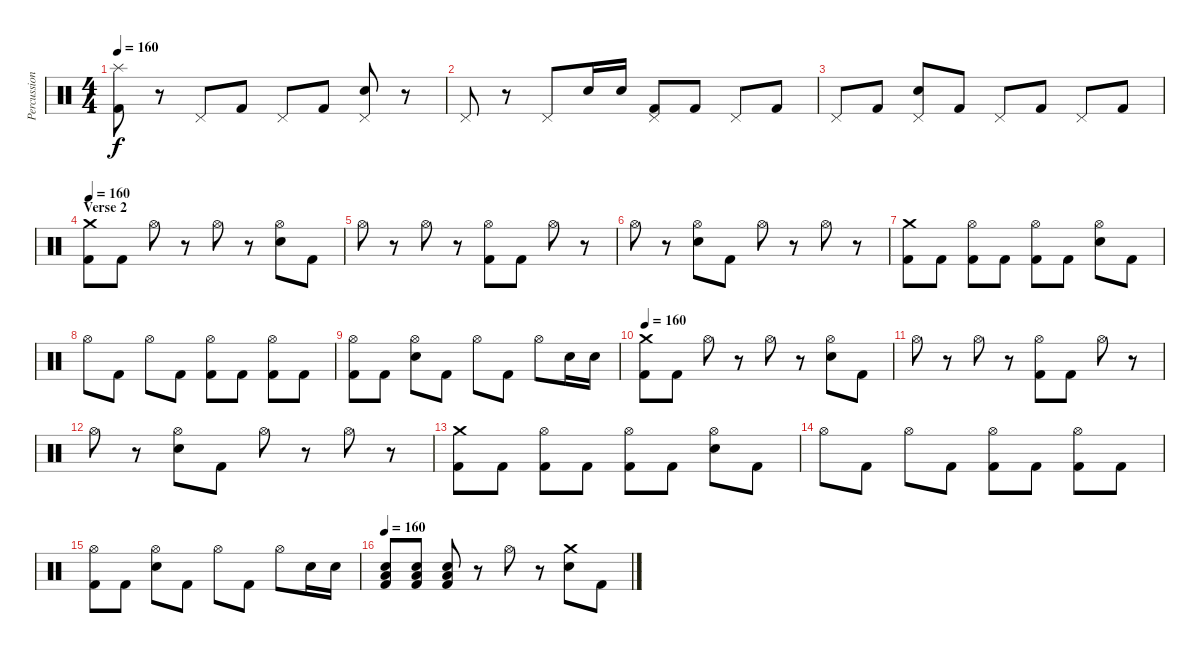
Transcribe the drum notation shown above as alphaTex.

\track ("Percussion" "Percussion") {instrument percussion}
\staff {score}
\articulation defaults
\ts (4 4)
\tempo 160
\clef neutral
\ks c
("Splash (hit)" "Kick (hit) 2").8{dy f} r.8 "Pedal Hi-Hat (hit)".8 "Kick (hit) 2".8 "Pedal Hi-Hat (hit)".8 "Kick (hit) 2".8 ("Pedal Hi-Hat (hit)" "Electric Snare (hit)").8 r.8 |
"Pedal Hi-Hat (hit)".8 r.8 "Pedal Hi-Hat (hit)".8 "Electric Snare (hit)".16 "Electric Snare (hit)".16 ("Pedal Hi-Hat (hit)" "Kick (hit) 2").8 "Kick (hit) 2".8 "Pedal Hi-Hat (hit)".8 "Kick (hit) 2".8 |
"Pedal Hi-Hat (hit)".8 "Kick (hit) 2".8 ("Pedal Hi-Hat (hit)" "Electric Snare (hit)").8 "Kick (hit) 2".8 "Pedal Hi-Hat (hit)".8 "Kick (hit) 2".8 "Pedal Hi-Hat (hit)".8 "Kick (hit) 2".8 |
\section ("" "Verse 2")
\tempo 160
("Crash medium (hit)" "Kick (hit) 2").8 "Kick (hit) 2".8 "Hi-Hat (open)".8 r.8 "Hi-Hat (open)".8 r.8 ("Hi-Hat (open)" "Electric Snare (hit)").8 "Kick (hit) 2".8 |
"Hi-Hat (open)".8 r.8 "Hi-Hat (open)".8 r.8 ("Hi-Hat (open)" "Kick (hit) 2").8 "Kick (hit) 2".8 "Hi-Hat (open)".8 r.8 |
"Hi-Hat (open)".8 r.8 ("Hi-Hat (open)" "Electric Snare (hit)").8 "Kick (hit) 2".8 "Hi-Hat (open)".8 r.8 "Hi-Hat (open)".8 r.8 |
("Crash medium (hit)" "Kick (hit) 2").8 "Kick (hit) 2".8 ("Hi-Hat (open)" "Kick (hit) 2").8 "Kick (hit) 2".8 ("Hi-Hat (open)" "Kick (hit) 2").8 "Kick (hit) 2".8 ("Hi-Hat (open)" "Electric Snare (hit)").8 "Kick (hit) 2".8 |
"Hi-Hat (open)".8 "Kick (hit) 2".8 "Hi-Hat (open)".8 "Kick (hit) 2".8 ("Hi-Hat (open)" "Kick (hit) 2").8 "Kick (hit) 2".8 ("Hi-Hat (open)" "Kick (hit) 2").8 "Kick (hit) 2".8 |
("Hi-Hat (open)" "Kick (hit) 2").8 "Kick (hit) 2".8 ("Hi-Hat (open)" "Electric Snare (hit)").8 "Kick (hit) 2".8 "Hi-Hat (open)".8 "Kick (hit) 2".8 "Hi-Hat (open)".8 "Electric Snare (hit)".16 "Electric Snare (hit)".16 |
\tempo 160
("Crash medium (hit)" "Kick (hit) 2").8 "Kick (hit) 2".8 "Hi-Hat (open)".8 r.8 "Hi-Hat (open)".8 r.8 ("Hi-Hat (open)" "Electric Snare (hit)").8 "Kick (hit) 2".8 |
"Hi-Hat (open)".8 r.8 "Hi-Hat (open)".8 r.8 ("Hi-Hat (open)" "Kick (hit) 2").8 "Kick (hit) 2".8 "Hi-Hat (open)".8 r.8 |
"Hi-Hat (open)".8 r.8 ("Hi-Hat (open)" "Electric Snare (hit)").8 "Kick (hit) 2".8 "Hi-Hat (open)".8 r.8 "Hi-Hat (open)".8 r.8 |
("Crash medium (hit)" "Kick (hit) 2").8 "Kick (hit) 2".8 ("Hi-Hat (open)" "Kick (hit) 2").8 "Kick (hit) 2".8 ("Hi-Hat (open)" "Kick (hit) 2").8 "Kick (hit) 2".8 ("Hi-Hat (open)" "Electric Snare (hit)").8 "Kick (hit) 2".8 |
"Hi-Hat (open)".8 "Kick (hit) 2".8 "Hi-Hat (open)".8 "Kick (hit) 2".8 ("Hi-Hat (open)" "Kick (hit) 2").8 "Kick (hit) 2".8 ("Hi-Hat (open)" "Kick (hit) 2").8 "Kick (hit) 2".8 |
("Hi-Hat (open)" "Kick (hit) 2").8 "Kick (hit) 2".8 ("Hi-Hat (open)" "Electric Snare (hit)").8 "Kick (hit) 2".8 "Hi-Hat (open)".8 "Kick (hit) 2".8 "Hi-Hat (open)".8 "Electric Snare (hit)".16 "Electric Snare (hit)".16 |
\tempo 160
("Low Floor Tom (hit)" "Electric Snare (hit)" "Kick (hit) 2").8 ("Low Floor Tom (hit)" "Electric Snare (hit)" "Kick (hit) 2").8 ("Low Floor Tom (hit)" "Electric Snare (hit)" "Kick (hit) 2").8 r.8 "Hi-Hat (open)".8 r.8 ("Crash medium (hit)" "Electric Snare (hit)").8 "Kick (hit) 2".8
